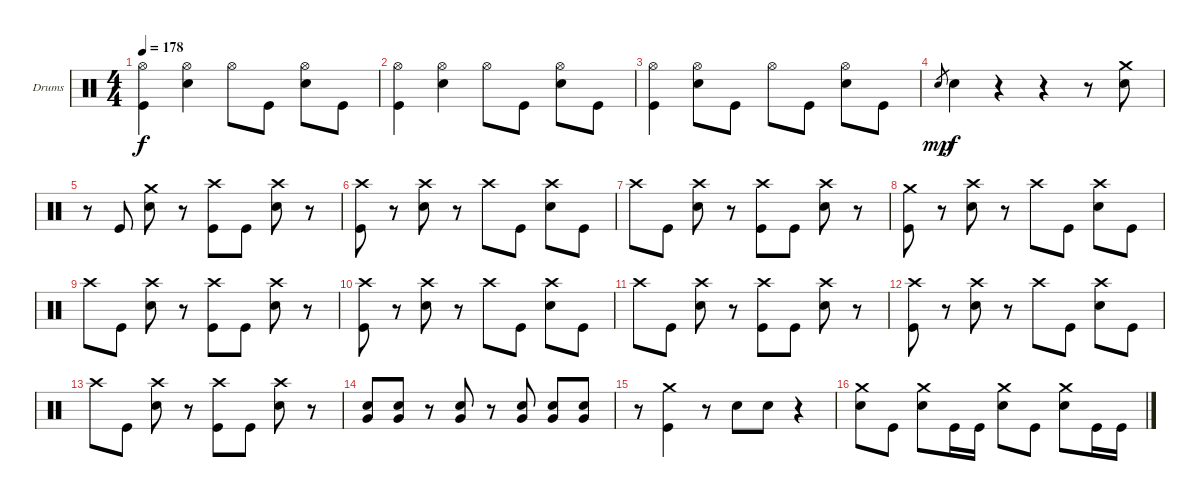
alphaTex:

\bracketExtendMode groupsimilarinstruments
\firstSystemTrackNameOrientation horizontal
\otherSystemsTrackNameOrientation horizontal
\track ("Drumkit" "Drums") {instrument percussion}
\staff {score}
\articulation defaults
\ts (4 4)
\tempo 178
\clef neutral
\ks c
("Hi-Hat (open)" "Kick (hit)").4{dy f} ("Hi-Hat (open)" "Snare (hit) 2").4 "Hi-Hat (open)".8 "Kick (hit)".8 ("Hi-Hat (open)" "Snare (hit) 2").8 "Kick (hit)".8 |
("Hi-Hat (open)" "Kick (hit)").4 ("Hi-Hat (open)" "Snare (hit) 2").4 "Hi-Hat (open)".8 "Kick (hit)".8 ("Hi-Hat (open)" "Snare (hit) 2").8 "Kick (hit)".8 |
("Hi-Hat (open)" "Kick (hit)").4 ("Hi-Hat (open)" "Snare (hit) 2").8 "Kick (hit)".8 "Hi-Hat (open)".8 "Kick (hit)".8 ("Hi-Hat (open)" "Snare (hit) 2").8 "Kick (hit)".8 |
"Snare (hit) 2".8{gr dy mp} "Snare (hit) 2".4{dy f} r.4 r.4 r.8 ("Crash medium (hit)" "Snare (hit) 2").8 |
r.8 "Kick (hit)".8 ("Crash medium (hit)" "Snare (hit) 2").8 r.8 ("Crash high (hit)" "Kick (hit)").8 "Kick (hit)".8 ("Crash high (hit)" "Snare (hit) 2").8 r.8 |
("Crash high (hit)" "Kick (hit)").8 r.8 ("Crash high (hit)" "Snare (hit) 2").8 r.8 "Crash high (hit)".8 "Kick (hit)".8 ("Crash high (hit)" "Snare (hit) 2").8 "Kick (hit)".8 |
"Crash high (hit)".8 "Kick (hit)".8 ("Crash high (hit)" "Snare (hit) 2").8 r.8 ("Crash high (hit)" "Kick (hit)").8 "Kick (hit)".8 ("Crash high (hit)" "Snare (hit) 2").8 r.8 |
("Crash medium (hit)" "Kick (hit)").8 r.8 ("Crash high (hit)" "Snare (hit) 2").8 r.8 "Crash high (hit)".8 "Kick (hit)".8 ("Crash high (hit)" "Snare (hit) 2").8 "Kick (hit)".8 |
"Crash high (hit)".8 "Kick (hit)".8 ("Crash high (hit)" "Snare (hit) 2").8 r.8 ("Crash high (hit)" "Kick (hit)").8 "Kick (hit)".8 ("Crash high (hit)" "Snare (hit) 2").8 r.8 |
("Crash high (hit)" "Kick (hit)").8 r.8 ("Crash high (hit)" "Snare (hit) 2").8 r.8 "Crash high (hit)".8 "Kick (hit)".8 ("Crash high (hit)" "Snare (hit) 2").8 "Kick (hit)".8 |
"Crash high (hit)".8 "Kick (hit)".8 ("Crash high (hit)" "Snare (hit) 2").8 r.8 ("Crash high (hit)" "Kick (hit)").8 "Kick (hit)".8 ("Crash high (hit)" "Snare (hit) 2").8 r.8 |
("Crash high (hit)" "Kick (hit)").8 r.8 ("Crash high (hit)" "Snare (hit) 2").8 r.8 "Crash high (hit)".8 "Kick (hit)".8 ("Crash high (hit)" "Snare (hit) 2").8 "Kick (hit)".8 |
"Crash high (hit)".8 "Kick (hit)".8 ("Crash high (hit)" "Snare (hit) 2").8 r.8 ("Crash high (hit)" "Kick (hit)").8 "Kick (hit)".8 ("Crash high (hit)" "Snare (hit) 2").8 r.8 |
("Snare (hit) 2" "Very Low Tom (hit)").8 ("Snare (hit) 2" "Very Low Tom (hit)").8 r.8 ("Snare (hit) 2" "Very Low Tom (hit)").8 r.8 ("Snare (hit) 2" "Very Low Tom (hit)").8 ("Snare (hit) 2" "Very Low Tom (hit)").8 ("Snare (hit) 2" "Very Low Tom (hit)").8 |
r.8 ("Crash medium (hit)" "Kick (hit)").4 r.8 "Snare (hit) 2".8 "Snare (hit) 2".8 r.4 |
("Crash medium (hit)" "Snare (hit) 2").8 "Kick (hit)".8 ("Crash medium (hit)" "Snare (hit) 2").8 "Kick (hit)".16 "Kick (hit)".16 ("Crash medium (hit)" "Snare (hit) 2").8 "Kick (hit)".8 ("Crash medium (hit)" "Snare (hit) 2").8 "Kick (hit)".16 "Kick (hit)".16
